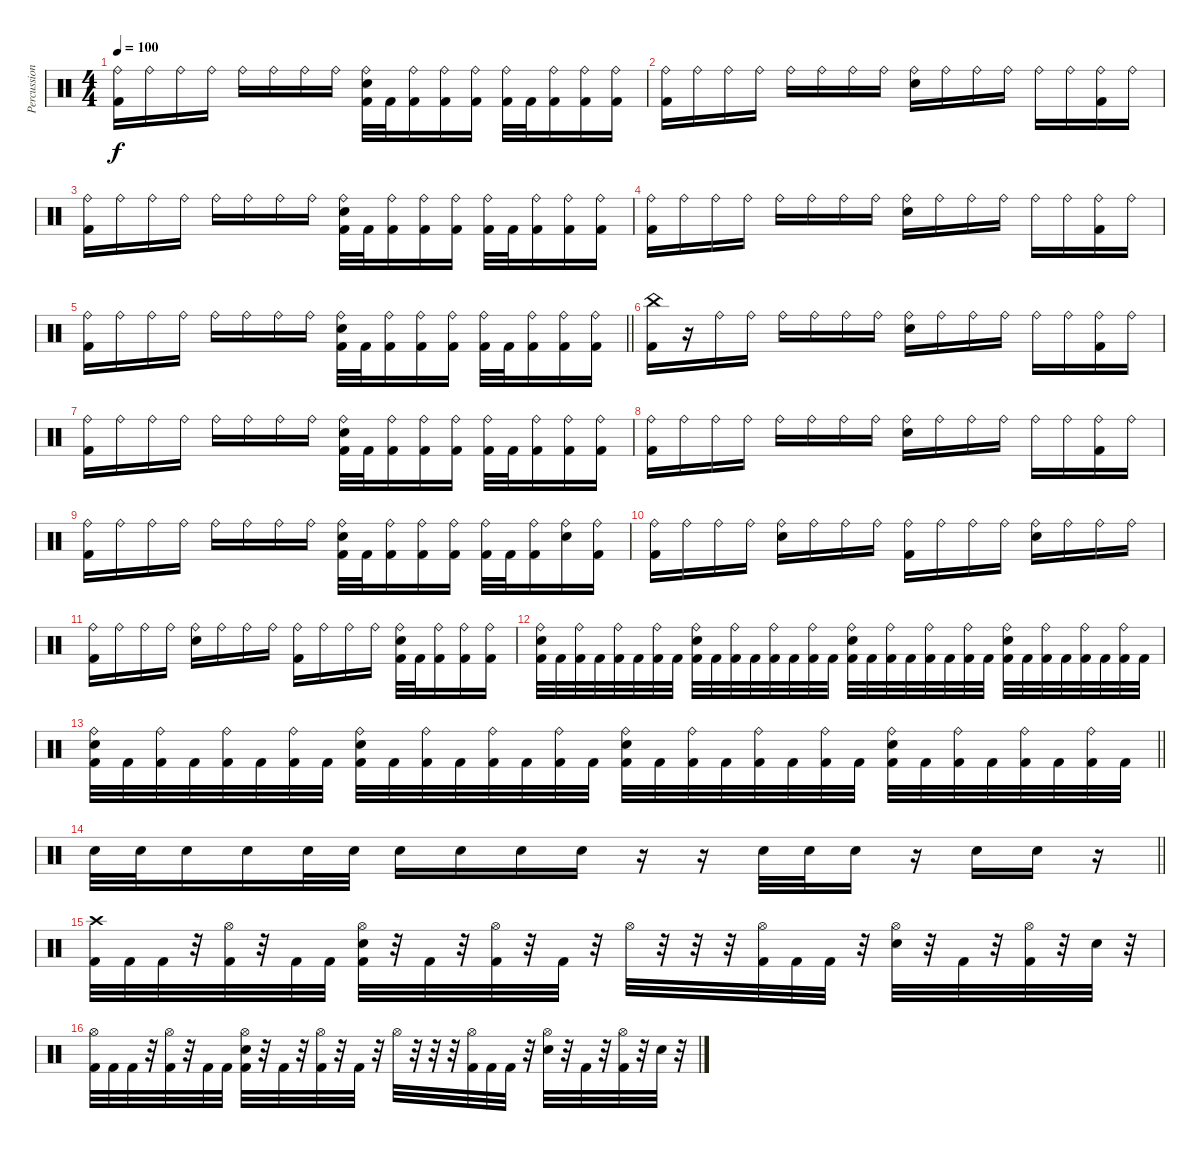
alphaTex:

\track ("Percussion" "Percussion") {instrument percussion}
\staff {score}
\articulation defaults
\ts (4 4)
\tempo 100
\clef neutral
\ks c
("Ride (bell)" "Kick (hit) 2").16{dy f} "Ride (bell)".16 "Ride (bell)".16 "Ride (bell)".16 "Ride (bell)".16 "Ride (bell)".16 "Ride (bell)".16 "Ride (bell)".16 ("Ride (bell)" "Snare (hit) 2" "Kick (hit) 2").32 "Kick (hit) 2".32 ("Ride (bell)" "Kick (hit) 2").16 ("Ride (bell)" "Kick (hit) 2").16 ("Ride (bell)" "Kick (hit) 2").16 ("Ride (bell)" "Kick (hit) 2").32 "Kick (hit) 2".32 ("Ride (bell)" "Kick (hit) 2").16 ("Ride (bell)" "Kick (hit) 2").16 ("Ride (bell)" "Kick (hit) 2").16 |
("Ride (bell)" "Kick (hit) 2").16 "Ride (bell)".16 "Ride (bell)".16 "Ride (bell)".16 "Ride (bell)".16 "Ride (bell)".16 "Ride (bell)".16 "Ride (bell)".16 ("Ride (bell)" "Snare (hit) 2").16 "Ride (bell)".16 "Ride (bell)".16 "Ride (bell)".16 "Ride (bell)".16 "Ride (bell)".16 ("Ride (bell)" "Kick (hit) 2").16 "Ride (bell)".16 |
("Ride (bell)" "Kick (hit) 2").16 "Ride (bell)".16 "Ride (bell)".16 "Ride (bell)".16 "Ride (bell)".16 "Ride (bell)".16 "Ride (bell)".16 "Ride (bell)".16 ("Ride (bell)" "Snare (hit) 2" "Kick (hit) 2").32 "Kick (hit) 2".32 ("Ride (bell)" "Kick (hit) 2").16 ("Ride (bell)" "Kick (hit) 2").16 ("Ride (bell)" "Kick (hit) 2").16 ("Ride (bell)" "Kick (hit) 2").32 "Kick (hit) 2".32 ("Ride (bell)" "Kick (hit) 2").16 ("Ride (bell)" "Kick (hit) 2").16 ("Ride (bell)" "Kick (hit) 2").16 |
("Ride (bell)" "Kick (hit) 2").16 "Ride (bell)".16 "Ride (bell)".16 "Ride (bell)".16 "Ride (bell)".16 "Ride (bell)".16 "Ride (bell)".16 "Ride (bell)".16 ("Ride (bell)" "Snare (hit) 2").16 "Ride (bell)".16 "Ride (bell)".16 "Ride (bell)".16 "Ride (bell)".16 "Ride (bell)".16 ("Ride (bell)" "Kick (hit) 2").16 "Ride (bell)".16 |
\barLineRight lightlight
("Ride (bell)" "Kick (hit) 2").16 "Ride (bell)".16 "Ride (bell)".16 "Ride (bell)".16 "Ride (bell)".16 "Ride (bell)".16 "Ride (bell)".16 "Ride (bell)".16 ("Ride (bell)" "Snare (hit) 2" "Kick (hit) 2").32 "Kick (hit) 2".32 ("Ride (bell)" "Kick (hit) 2").16 ("Ride (bell)" "Kick (hit) 2").16 ("Ride (bell)" "Kick (hit) 2").16 ("Ride (bell)" "Kick (hit) 2").32 "Kick (hit) 2".32 ("Ride (bell)" "Kick (hit) 2").16 ("Ride (bell)" "Kick (hit) 2").16 ("Ride (bell)" "Kick (hit) 2").16 |
\section ("" "")
("China (hit)" "Kick (hit) 2").16 r.16 "Ride (bell)".16 "Ride (bell)".16 "Ride (bell)".16 "Ride (bell)".16 "Ride (bell)".16 "Ride (bell)".16 ("Ride (bell)" "Snare (hit) 2").16 "Ride (bell)".16 "Ride (bell)".16 "Ride (bell)".16 "Ride (bell)".16 "Ride (bell)".16 ("Ride (bell)" "Kick (hit) 2").16 "Ride (bell)".16 |
("Ride (bell)" "Kick (hit) 2").16 "Ride (bell)".16 "Ride (bell)".16 "Ride (bell)".16 "Ride (bell)".16 "Ride (bell)".16 "Ride (bell)".16 "Ride (bell)".16 ("Ride (bell)" "Snare (hit) 2" "Kick (hit) 2").32 "Kick (hit) 2".32 ("Ride (bell)" "Kick (hit) 2").16 ("Ride (bell)" "Kick (hit) 2").16 ("Ride (bell)" "Kick (hit) 2").16 ("Ride (bell)" "Kick (hit) 2").32 "Kick (hit) 2".32 ("Ride (bell)" "Kick (hit) 2").16 ("Ride (bell)" "Kick (hit) 2").16 ("Ride (bell)" "Kick (hit) 2").16 |
("Ride (bell)" "Kick (hit) 2").16 "Ride (bell)".16 "Ride (bell)".16 "Ride (bell)".16 "Ride (bell)".16 "Ride (bell)".16 "Ride (bell)".16 "Ride (bell)".16 ("Ride (bell)" "Snare (hit) 2").16 "Ride (bell)".16 "Ride (bell)".16 "Ride (bell)".16 "Ride (bell)".16 "Ride (bell)".16 ("Ride (bell)" "Kick (hit) 2").16 "Ride (bell)".16 |
("Ride (bell)" "Kick (hit) 2").16 "Ride (bell)".16 "Ride (bell)".16 "Ride (bell)".16 "Ride (bell)".16 "Ride (bell)".16 "Ride (bell)".16 "Ride (bell)".16 ("Ride (bell)" "Snare (hit) 2" "Kick (hit) 2").32 "Kick (hit) 2".32 ("Ride (bell)" "Kick (hit) 2").16 ("Ride (bell)" "Kick (hit) 2").16 ("Ride (bell)" "Kick (hit) 2").16 ("Ride (bell)" "Kick (hit) 2").32 "Kick (hit) 2".32 ("Ride (bell)" "Kick (hit) 2").16 ("Ride (bell)" "Snare (hit) 2").16 ("Ride (bell)" "Kick (hit) 2").16 |
("Ride (bell)" "Kick (hit) 2").16 "Ride (bell)".16 "Ride (bell)".16 "Ride (bell)".16 ("Ride (bell)" "Snare (hit) 2").16 "Ride (bell)".16 "Ride (bell)".16 "Ride (bell)".16 ("Ride (bell)" "Kick (hit) 2").16 "Ride (bell)".16 "Ride (bell)".16 "Ride (bell)".16 ("Ride (bell)" "Snare (hit) 2").16 "Ride (bell)".16 "Ride (bell)".16 "Ride (bell)".16 |
("Ride (bell)" "Kick (hit) 2").16 "Ride (bell)".16 "Ride (bell)".16 "Ride (bell)".16 ("Ride (bell)" "Snare (hit) 2").16 "Ride (bell)".16 "Ride (bell)".16 "Ride (bell)".16 ("Ride (bell)" "Kick (hit) 2").16 "Ride (bell)".16 "Ride (bell)".16 "Ride (bell)".16 ("Ride (bell)" "Snare (hit) 2" "Kick (hit) 2").32 "Kick (hit) 2".32 ("Ride (bell)" "Kick (hit) 2").16 ("Ride (bell)" "Kick (hit) 2").16 ("Ride (bell)" "Kick (hit) 2").16 |
("Ride (bell)" "Snare (hit) 2" "Kick (hit) 2").32 "Kick (hit) 2".32 ("Ride (bell)" "Kick (hit) 2").32 "Kick (hit) 2".32 ("Ride (bell)" "Kick (hit) 2").32 "Kick (hit) 2".32 ("Ride (bell)" "Kick (hit) 2").32 "Kick (hit) 2".32 ("Ride (bell)" "Snare (hit) 2" "Kick (hit) 2").32 "Kick (hit) 2".32 ("Ride (bell)" "Kick (hit) 2").32 "Kick (hit) 2".32 ("Ride (bell)" "Kick (hit) 2").32 "Kick (hit) 2".32 ("Ride (bell)" "Kick (hit) 2").32 "Kick (hit) 2".32 ("Ride (bell)" "Snare (hit) 2" "Kick (hit) 2").32 "Kick (hit) 2".32 ("Ride (bell)" "Kick (hit) 2").32 "Kick (hit) 2".32 ("Ride (bell)" "Kick (hit) 2").32 "Kick (hit) 2".32 ("Ride (bell)" "Kick (hit) 2").32 "Kick (hit) 2".32 ("Ride (bell)" "Snare (hit) 2" "Kick (hit) 2").32 "Kick (hit) 2".32 ("Ride (bell)" "Kick (hit) 2").32 "Kick (hit) 2".32 ("Ride (bell)" "Kick (hit) 2").32 "Kick (hit) 2".32 ("Ride (bell)" "Kick (hit) 2").32 "Kick (hit) 2".32 |
\barLineRight lightlight
("Ride (bell)" "Snare (hit) 2" "Kick (hit) 2").32 "Kick (hit) 2".32 ("Ride (bell)" "Kick (hit) 2").32 "Kick (hit) 2".32 ("Ride (bell)" "Kick (hit) 2").32 "Kick (hit) 2".32 ("Ride (bell)" "Kick (hit) 2").32 "Kick (hit) 2".32 ("Ride (bell)" "Snare (hit) 2" "Kick (hit) 2").32 "Kick (hit) 2".32 ("Ride (bell)" "Kick (hit) 2").32 "Kick (hit) 2".32 ("Ride (bell)" "Kick (hit) 2").32 "Kick (hit) 2".32 ("Ride (bell)" "Kick (hit) 2").32 "Kick (hit) 2".32 ("Ride (bell)" "Snare (hit) 2" "Kick (hit) 2").32 "Kick (hit) 2".32 ("Ride (bell)" "Kick (hit) 2").32 "Kick (hit) 2".32 ("Ride (bell)" "Kick (hit) 2").32 "Kick (hit) 2".32 ("Ride (bell)" "Kick (hit) 2").32 "Kick (hit) 2".32 ("Ride (bell)" "Snare (hit) 2" "Kick (hit) 2").32 "Kick (hit) 2".32 ("Ride (bell)" "Kick (hit) 2").32 "Kick (hit) 2".32 ("Ride (bell)" "Kick (hit) 2").32 "Kick (hit) 2".32 ("Ride (bell)" "Kick (hit) 2").32 "Kick (hit) 2".32 |
\section ("" "")
\barLineRight lightlight "Snare (hit) 2".32 "Snare (hit) 2".32 "Snare (hit) 2".16 "Snare (hit) 2".16 "Snare (hit) 2".32 "Snare (hit) 2".32 "Snare (hit) 2".16 "Snare (hit) 2".16 "Snare (hit) 2".16 "Snare (hit) 2".16
r.16 r.16 "Snare (hit) 2".32 "Snare (hit) 2".32 "Snare (hit) 2".16 r.16 "Snare (hit) 2".16 "Snare (hit) 2".16 r.16 |
\section ("" "")
("Crash high (hit)" "Kick (hit) 2").32 "Kick (hit) 2".32 "Kick (hit) 2".32 r.32 ("Hi-Hat (open)" "Kick (hit) 2").32 r.32 "Kick (hit) 2".32 "Kick (hit) 2".32 ("Hi-Hat (open)" "Snare (hit) 2" "Kick (hit) 2").32 r.32 "Kick (hit) 2".32 r.32 ("Hi-Hat (open)" "Kick (hit) 2").32 r.32 "Kick (hit) 2".32 r.32 "Hi-Hat (open)".32 r.32 r.32 r.32 ("Hi-Hat (open)" "Kick (hit) 2").32 "Kick (hit) 2".32 "Kick (hit) 2".32 r.32 ("Hi-Hat (open)" "Snare (hit) 2").32 r.32 "Kick (hit) 2".32 r.32 ("Hi-Hat (open)" "Kick (hit) 2").32 r.32 "Snare (hit) 2".32 r.32 |
("Hi-Hat (open)" "Kick (hit) 2").32 "Kick (hit) 2".32 "Kick (hit) 2".32 r.32 ("Hi-Hat (open)" "Kick (hit) 2").32 r.32 "Kick (hit) 2".32 "Kick (hit) 2".32 ("Hi-Hat (open)" "Snare (hit) 2" "Kick (hit) 2").32 r.32 "Kick (hit) 2".32 r.32 ("Hi-Hat (open)" "Kick (hit) 2").32 r.32 "Kick (hit) 2".32 r.32 "Hi-Hat (open)".32 r.32 r.32 r.32 ("Hi-Hat (open)" "Kick (hit) 2").32 "Kick (hit) 2".32 "Kick (hit) 2".32 r.32 ("Hi-Hat (open)" "Snare (hit) 2").32 r.32 "Kick (hit) 2".32 r.32 ("Hi-Hat (open)" "Kick (hit) 2").32 r.32 "Snare (hit) 2".32 r.32
